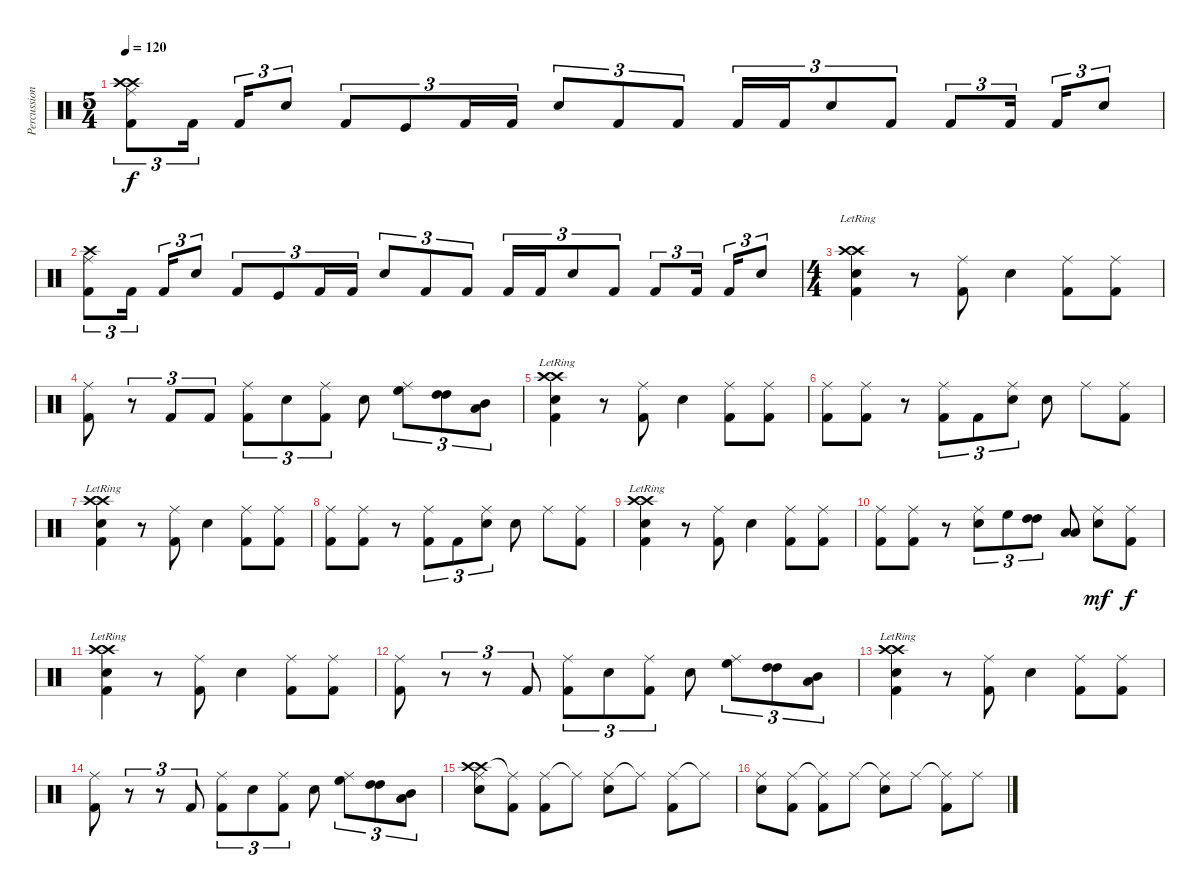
\track ("Percussioni" "Percussion") {instrument percussion}
\staff {score}
\articulation defaults
\ts (5 4)
\tempo 120
\clef neutral
\ks c
("Crash high (hit)" "Crash high (hit)" "Ride (middle)" "Kick (hit) 2").8{tu (3 2) dy f} "Kick (hit) 2".16{tu (3 2)} "Kick (hit) 2".16{tu (3 2)} "Electric Snare (hit)".8{tu (3 2)} "Kick (hit) 2".8{tu (3 2)} "Kick (hit)".8{tu (3 2)} "Kick (hit) 2".16{tu (3 2)} "Kick (hit) 2".16{tu (3 2)} "Electric Snare (hit)".8{tu (3 2)} "Kick (hit) 2".8{tu (3 2)} "Kick (hit) 2".8{tu (3 2)} "Kick (hit) 2".16{tu (3 2)} "Kick (hit) 2".16{tu (3 2)} "Electric Snare (hit)".8{tu (3 2)} "Kick (hit) 2".8{tu (3 2)} "Kick (hit) 2".8{tu (3 2)} "Kick (hit) 2".16{tu (3 2)} "Kick (hit) 2".16{tu (3 2)} "Electric Snare (hit)".8{tu (3 2)} |
("Crash high (hit)" "Ride (middle)" "Kick (hit) 2").8{tu (3 2)} "Kick (hit) 2".16{tu (3 2)} "Kick (hit) 2".16{tu (3 2)} "Electric Snare (hit)".8{tu (3 2)} "Kick (hit) 2".8{tu (3 2)} "Kick (hit)".8{tu (3 2)} "Kick (hit) 2".16{tu (3 2)} "Kick (hit) 2".16{tu (3 2)} "Electric Snare (hit)".8{tu (3 2)} "Kick (hit) 2".8{tu (3 2)} "Kick (hit) 2".8{tu (3 2)} "Kick (hit) 2".16{tu (3 2)} "Kick (hit) 2".16{tu (3 2)} "Electric Snare (hit)".8{tu (3 2)} "Kick (hit) 2".8{tu (3 2)} "Kick (hit) 2".8{tu (3 2)} "Kick (hit) 2".16{tu (3 2)} "Kick (hit) 2".16{tu (3 2)} "Electric Snare (hit)".8{tu (3 2)} |
\ts (4 4)
("Crash high (hit)"{lr} "Crash high (hit)"{lr} "Kick (hit) 2" "Electric Snare (hit)").4 r.8 ("Ride (middle)" "Kick (hit) 2").8 "Electric Snare (hit)".4 ("Ride (middle)" "Kick (hit) 2").8 ("Ride (middle)" "Kick (hit) 2").8 |
("Kick (hit) 2" "Ride (middle)").8 r.8{tu (3 2)} "Kick (hit) 2".8{tu (3 2)} "Kick (hit) 2".8{tu (3 2)} ("Ride (middle)" "Kick (hit) 2").8{tu (3 2)} "Electric Snare (hit)".8{tu (3 2)} ("Ride (middle)" "Kick (hit) 2").8{tu (3 2)} "Electric Snare (hit)".8 ("Ride (middle)" "High Floor Tom (hit)").8{tu (3 2) bd 240} ("High Tom (hit)" "High Tom (hit)").8{tu (3 2) bd 120} ("Low Tom (hit)" "Mid Tom (hit)").8{tu (3 2) bd 120} |
("Crash high (hit)"{lr} "Crash high (hit)"{lr} "Kick (hit) 2" "Electric Snare (hit)").4 r.8 ("Ride (middle)" "Kick (hit) 2").8 "Electric Snare (hit)".4 ("Ride (middle)" "Kick (hit) 2").8 ("Ride (middle)" "Kick (hit) 2").8 |
("Ride (middle)" "Kick (hit) 2").8 ("Ride (middle)" "Kick (hit) 2").8 r.8 ("Ride (middle)" "Kick (hit) 2").8{tu (3 2)} "Kick (hit) 2".8{tu (3 2)} ("Ride (middle)" "Electric Snare (hit)").8{tu (3 2)} "Electric Snare (hit)".8 "Ride (middle)".8 ("Ride (middle)" "Kick (hit) 2").8 |
("Crash high (hit)"{lr} "Crash high (hit)"{lr} "Kick (hit) 2" "Electric Snare (hit)").4 r.8 ("Ride (middle)" "Kick (hit) 2").8 "Electric Snare (hit)".4 ("Ride (middle)" "Kick (hit) 2").8 ("Ride (middle)" "Kick (hit) 2").8 |
("Ride (middle)" "Kick (hit) 2").8 ("Ride (middle)" "Kick (hit) 2").8 r.8 ("Ride (middle)" "Kick (hit) 2").8{tu (3 2)} "Kick (hit) 2".8{tu (3 2)} ("Ride (middle)" "Electric Snare (hit)").8{tu (3 2)} "Electric Snare (hit)".8 "Ride (middle)".8 ("Ride (middle)" "Kick (hit) 2").8 |
("Crash high (hit)"{lr} "Crash high (hit)"{lr} "Kick (hit) 2" "Electric Snare (hit)").4 r.8 ("Ride (middle)" "Kick (hit) 2").8 "Electric Snare (hit)".4 ("Ride (middle)" "Kick (hit) 2").8 ("Ride (middle)" "Kick (hit) 2").8 |
("Ride (middle)" "Kick (hit) 2").8 ("Ride (middle)" "Kick (hit) 2").8 r.8 ("Ride (middle)" "Electric Snare (hit)").8{tu (3 2)} "High Floor Tom (hit)".8{tu (3 2)} ("High Tom (hit)" "High Tom (hit)").8{tu (3 2)} ("Low Tom (hit)" "Low Tom (hit)").8 ("Ride (middle)" "Electric Snare (hit)").8{dy mf} ("Ride (middle)" "Kick (hit) 2").8{dy f} |
("Crash high (hit)"{lr} "Crash high (hit)"{lr} "Kick (hit) 2" "Electric Snare (hit)").4 r.8 ("Ride (middle)" "Kick (hit) 2").8 "Electric Snare (hit)".4 ("Ride (middle)" "Kick (hit) 2").8 ("Ride (middle)" "Kick (hit) 2").8 |
("Kick (hit) 2" "Ride (middle)").8 r.8{tu (3 2)} r.8{tu (3 2)} "Kick (hit) 2".8{tu (3 2)} ("Ride (middle)" "Kick (hit) 2").8{tu (3 2)} "Electric Snare (hit)".8{tu (3 2)} ("Ride (middle)" "Kick (hit) 2").8{tu (3 2)} "Electric Snare (hit)".8 ("Ride (middle)" "High Floor Tom (hit)").8{tu (3 2) bd 240} ("High Tom (hit)" "High Tom (hit)").8{tu (3 2) bd 120} ("Low Tom (hit)" "Mid Tom (hit)").8{tu (3 2) bd 120} |
("Crash high (hit)"{lr} "Crash high (hit)"{lr} "Kick (hit) 2" "Electric Snare (hit)").4 r.8 ("Ride (middle)" "Kick (hit) 2").8 "Electric Snare (hit)".4 ("Ride (middle)" "Kick (hit) 2").8 ("Ride (middle)" "Kick (hit) 2").8 |
("Kick (hit) 2" "Ride (middle)").8 r.8{tu (3 2)} r.8{tu (3 2)} "Kick (hit) 2".8{tu (3 2)} ("Ride (middle)" "Kick (hit) 2").8{tu (3 2)} "Electric Snare (hit)".8{tu (3 2)} ("Ride (middle)" "Kick (hit) 2").8{tu (3 2)} "Electric Snare (hit)".8 ("Ride (middle)" "High Floor Tom (hit)").8{tu (3 2) bd 240} ("High Tom (hit)" "High Tom (hit)").8{tu (3 2) bd 120} ("Low Tom (hit)" "Mid Tom (hit)").8{tu (3 2) bd 120} |
("Crash high (hit)" "Crash high (hit)" "Ride (middle)" "Electric Snare (hit)").8 ("Ride (middle)"{t} "Kick (hit) 2").8 ("Ride (middle)" "Kick (hit) 2").8 "Ride (middle)"{t}.8 ("Ride (middle)" "Electric Snare (hit)").8 "Ride (middle)"{t}.8 ("Ride (middle)" "Kick (hit) 2").8 "Ride (middle)"{t}.8 |
("Ride (middle)" "Electric Snare (hit)").8 ("Ride (middle)" "Kick (hit) 2").8 ("Ride (middle)"{t} "Kick (hit) 2").8 "Ride (middle)".8 ("Ride (middle)"{t} "Electric Snare (hit)").8 "Ride (middle)".8 ("Ride (middle)"{t} "Kick (hit) 2").8 "Ride (middle)".8
